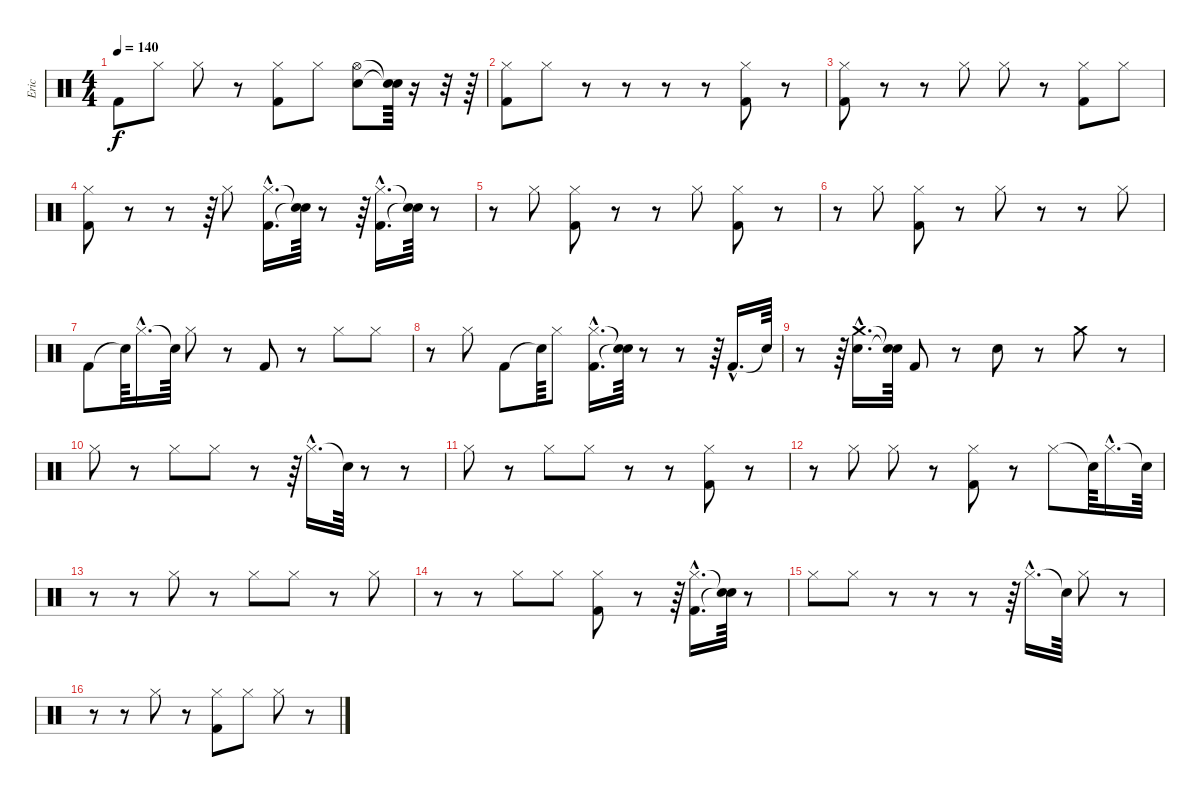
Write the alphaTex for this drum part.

\track ("Eric" "Eric") {instrument percussion}
\staff {score}
\articulation defaults
\ts (4 4)
\tempo 140
\clef neutral
\ks c "Kick (hit) 2".8{dy f} "Hi-Hat (closed)".8 "Hi-Hat (closed)".8
r.8 ("Hi-Hat (closed)" "Kick (hit) 2").8 "Hi-Hat (closed)".8 ("Hi-Hat (open)" "Electric Snare (hit)").8 ("Snare (hit)"{t} "Snare (hit)"{t}).64 r.16 r.32 r.64 |
("Kick (hit) 2" "Hi-Hat (closed)").8 "Hi-Hat (closed)".8 r.8 r.8 r.8 r.8 ("Hi-Hat (closed)" "Kick (hit) 2").8 r.8 |
("Hi-Hat (closed)" "Kick (hit) 2").8 r.8 r.8 "Hi-Hat (closed)".8 "Hi-Hat (closed)".8 r.8 ("Hi-Hat (closed)" "Kick (hit) 2").8 "Hi-Hat (closed)".8 |
("Kick (hit) 2" "Hi-Hat (closed)").8 r.8 r.8 r.64 "Hi-Hat (closed)".8 ("Kick (hit) 2"{hac} "Hi-Hat (closed)"{hac}).16{d} ("Snare (hit)"{t} "Snare (hit)"{t}).64 r.8 r.64 ("Hi-Hat (closed)"{hac} "Kick (hit) 2"{hac}).16{d} ("Snare (hit)"{t} "Snare (hit)"{t}).64 r.8 |
r.8 "Hi-Hat (closed)".8 ("Hi-Hat (closed)" "Kick (hit) 2").8 r.8 r.8 "Hi-Hat (closed)".8 ("Hi-Hat (closed)" "Kick (hit) 2").8 r.8 |
r.8 "Hi-Hat (closed)".8 ("Hi-Hat (closed)" "Kick (hit) 2").8 r.8 "Hi-Hat (closed)".8 r.8 r.8 "Hi-Hat (closed)".8 |
"Kick (hit) 2".8 "Snare (hit)"{t}.64 "Hi-Hat (closed)"{hac}.16{d} "Snare (hit)"{t}.64 "Hi-Hat (closed)".8 r.8 "Kick (hit) 2".8 r.8 "Hi-Hat (closed)".8 "Hi-Hat (closed)".8 |
r.8 "Hi-Hat (closed)".8 "Kick (hit) 2".8 "Snare (hit)"{t}.64 "Hi-Hat (closed)".8 ("Kick (hit) 2"{hac} "Hi-Hat (closed)"{hac}).16{d} ("Snare (hit)"{t} "Snare (hit)"{t}).64 r.8 r.8 r.64 "Kick (hit) 2"{hac}.16{d} "Snare (hit)"{t}.64 |
r.8 r.64 ("Electric Snare (hit)"{hac} "Crash medium (hit)"{hac}).16{d} ("Snare (hit)"{t} "Snare (hit)"{t}).64 "Kick (hit) 2".8 r.8 "Electric Snare (hit)".8 r.8 "Crash medium (hit)".8 r.8 |
"Hi-Hat (closed)".8 r.8 "Hi-Hat (closed)".8 "Hi-Hat (closed)".8 r.8 r.64 "Hi-Hat (closed)"{hac}.16{d} "Snare (hit)"{t}.64 r.8 r.8 |
"Hi-Hat (closed)".8 r.8 "Hi-Hat (closed)".8 "Hi-Hat (closed)".8 r.8 r.8 ("Kick (hit) 2" "Hi-Hat (closed)").8 r.8 |
r.8 "Hi-Hat (closed)".8 "Hi-Hat (closed)".8 r.8 ("Kick (hit) 2" "Hi-Hat (closed)").8 r.8 "Hi-Hat (closed)".8 "Snare (hit)"{t}.64 "Hi-Hat (closed)"{hac}.16{d} "Snare (hit)"{t}.64 |
r.8 r.8 "Hi-Hat (closed)".8 r.8 "Hi-Hat (closed)".8 "Hi-Hat (closed)".8 r.8 "Hi-Hat (closed)".8 |
r.8 r.8 "Hi-Hat (closed)".8 "Hi-Hat (closed)".8 ("Kick (hit) 2" "Hi-Hat (closed)").8 r.8 r.64 ("Kick (hit) 2"{hac} "Hi-Hat (closed)"{hac}).16{d} ("Snare (hit)"{t} "Snare (hit)"{t}).64 r.8 |
"Hi-Hat (closed)".8 "Hi-Hat (closed)".8 r.8 r.8 r.8 r.64 "Hi-Hat (closed)"{hac}.16{d} "Snare (hit)"{t}.64 "Hi-Hat (closed)".8 r.8 |
r.8 r.8 "Hi-Hat (closed)".8 r.8 ("Kick (hit) 2" "Hi-Hat (closed)").8 "Hi-Hat (closed)".8 "Hi-Hat (closed)".8 r.8
